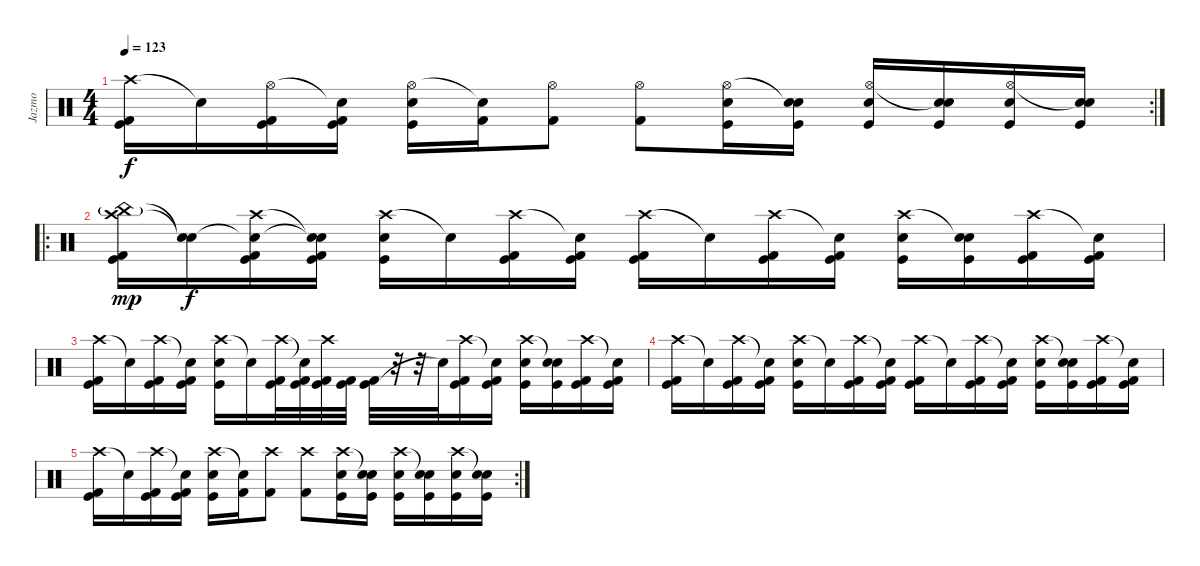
\track ("Jazmo" "Jazmo") {instrument percussion}
\staff {score}
\articulation defaults
\rc 2
\ts (4 4)
\tempo 123
\clef neutral
\ks c
("Crash high (hit)" "Kick (hit)" "Kick (hit) 2").16{dy f} "Snare (hit)"{t}.16 ("Hi-Hat (open)" "Kick (hit)" "Kick (hit) 2").16 ("Snare (hit)"{t} "Kick (hit)" "Kick (hit) 2").16 ("Hi-Hat (open)" "Kick (hit)" "Electric Snare (hit)").16 ("Snare (hit)"{t} "Kick (hit) 2").16 ("Hi-Hat (open)" "Kick (hit) 2").8 ("Hi-Hat (open)" "Kick (hit) 2").8 ("Hi-Hat (open)" "Kick (hit)" "Electric Snare (hit)").16 ("Snare (hit)"{t} "Kick (hit)" "Electric Snare (hit)").16 ("Hi-Hat (open)" "Kick (hit)" "Electric Snare (hit)").16 ("Snare (hit)"{t} "Kick (hit)" "Electric Snare (hit)").16 ("Hi-Hat (open)" "Kick (hit)" "Electric Snare (hit)").16 ("Snare (hit)"{t} "Kick (hit)" "Electric Snare (hit)").16 |
\ro
("Crash high (hit)" "China (hit)"{g} "Kick (hit)" "Kick (hit) 2").16{dy mp} ("Snare (hit)"{t} "Snare (hit)"{t}).16{dy f} ("Crash high (hit)" "Snare (hit)"{t} "Kick (hit)" "Kick (hit) 2").16 ("Snare (hit)"{t} "Snare (hit)"{t} "Kick (hit)" "Kick (hit) 2").16 ("Crash high (hit)" "Kick (hit)" "Electric Snare (hit)").16 "Snare (hit)"{t}.16 ("Crash high (hit)" "Kick (hit)" "Kick (hit) 2").16 ("Snare (hit)"{t} "Kick (hit)" "Kick (hit) 2").16 ("Crash high (hit)" "Kick (hit)" "Kick (hit) 2").16 "Snare (hit)"{t}.16 ("Crash high (hit)" "Kick (hit)" "Kick (hit) 2").16 ("Snare (hit)"{t} "Kick (hit)" "Kick (hit) 2").16 ("Crash high (hit)" "Kick (hit)" "Electric Snare (hit)").16 ("Snare (hit)"{t} "Kick (hit)" "Electric Snare (hit)").16 ("Crash high (hit)" "Kick (hit)" "Kick (hit) 2").16 ("Snare (hit)"{t} "Kick (hit)" "Kick (hit) 2").16 |
("Crash high (hit)" "Kick (hit)" "Kick (hit) 2").16 "Snare (hit)"{t}.16 ("Crash high (hit)" "Kick (hit)" "Kick (hit) 2").16 ("Snare (hit)"{t} "Kick (hit)" "Kick (hit) 2").16 ("Crash high (hit)" "Kick (hit)" "Electric Snare (hit)").16 "Snare (hit)"{t}.16 ("Crash high (hit)" "Kick (hit)" "Kick (hit) 2").32 ("Snare (hit)"{t} "Kick (hit)" "Kick (hit) 2").32 ("Crash high (hit)" "Kick (hit)" "Kick (hit) 2").32 ("Kick (hit)" "Kick (hit) 2").32 ("Kick (hit)" "Kick (hit) 2").32 r.32 r.32 "Snare (hit)"{t}.32 ("Crash high (hit)" "Kick (hit)" "Kick (hit) 2").16 ("Snare (hit)"{t} "Kick (hit)" "Kick (hit) 2").16 ("Crash high (hit)" "Kick (hit)" "Electric Snare (hit)").16 ("Snare (hit)"{t} "Kick (hit)" "Electric Snare (hit)").16 ("Crash high (hit)" "Kick (hit)" "Kick (hit) 2").16 ("Snare (hit)"{t} "Kick (hit)" "Kick (hit) 2").16 |
("Crash high (hit)" "Kick (hit)" "Kick (hit) 2").16 "Snare (hit)"{t}.16 ("Crash high (hit)" "Kick (hit)" "Kick (hit) 2").16 ("Snare (hit)"{t} "Kick (hit)" "Kick (hit) 2").16 ("Crash high (hit)" "Kick (hit)" "Electric Snare (hit)").16 "Snare (hit)"{t}.16 ("Crash high (hit)" "Kick (hit)" "Kick (hit) 2").16 ("Snare (hit)"{t} "Kick (hit)" "Kick (hit) 2").16 ("Crash high (hit)" "Kick (hit)" "Kick (hit) 2").16 "Snare (hit)"{t}.16 ("Crash high (hit)" "Kick (hit)" "Kick (hit) 2").16 ("Snare (hit)"{t} "Kick (hit)" "Kick (hit) 2").16 ("Crash high (hit)" "Kick (hit)" "Electric Snare (hit)").16 ("Snare (hit)"{t} "Kick (hit)" "Electric Snare (hit)").16 ("Crash high (hit)" "Kick (hit)" "Kick (hit) 2").16 ("Snare (hit)"{t} "Kick (hit)" "Kick (hit) 2").16 |
\rc 2
("Crash high (hit)" "Kick (hit)" "Kick (hit) 2").16 "Snare (hit)"{t}.16 ("Crash high (hit)" "Kick (hit)" "Kick (hit) 2").16 ("Snare (hit)"{t} "Kick (hit)" "Kick (hit) 2").16 ("Crash high (hit)" "Kick (hit)" "Electric Snare (hit)").16 ("Snare (hit)"{t} "Kick (hit) 2").16 ("Crash high (hit)" "Kick (hit) 2").8 ("Crash high (hit)" "Kick (hit) 2").8 ("Crash high (hit)" "Kick (hit)" "Electric Snare (hit)").16 ("Snare (hit)"{t} "Kick (hit)" "Electric Snare (hit)").16 ("Crash high (hit)" "Kick (hit)" "Electric Snare (hit)").16 ("Snare (hit)"{t} "Kick (hit)" "Electric Snare (hit)").16 ("Crash high (hit)" "Kick (hit)" "Electric Snare (hit)").16 ("Snare (hit)"{t} "Kick (hit)" "Electric Snare (hit)").16
